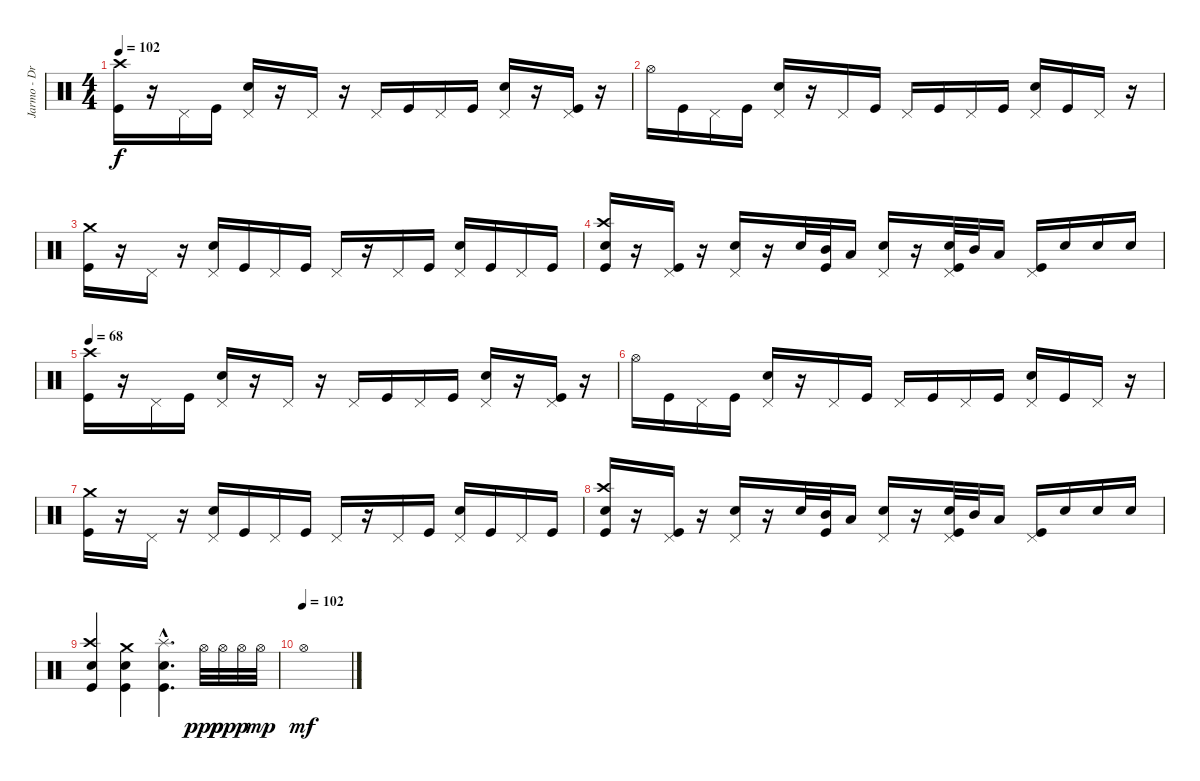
\track ("Jarmo - Drums" "Jarmo - Dr") {instrument percussion}
\staff {score}
\articulation defaults
\ts (4 4)
\tempo 102
\clef neutral
\ks c
("Kick (hit)" "Crash high (hit)").16{dy f} r.16 "Pedal Hi-Hat (hit)".16 "Kick (hit)".16 ("Electric Snare (hit)" "Pedal Hi-Hat (hit)").16 r.16 "Pedal Hi-Hat (hit)".16 r.16 "Pedal Hi-Hat (hit)".16 "Kick (hit)".16 "Pedal Hi-Hat (hit)".16 "Kick (hit)".16 ("Electric Snare (hit)" "Pedal Hi-Hat (hit)").16 r.16 ("Kick (hit)" "Pedal Hi-Hat (hit)").16 r.16 |
"Hi-Hat (open)".16 "Kick (hit)".16 "Pedal Hi-Hat (hit)".16 "Kick (hit)".16 ("Electric Snare (hit)" "Pedal Hi-Hat (hit)").16 r.16 "Pedal Hi-Hat (hit)".16 "Kick (hit)".16 "Pedal Hi-Hat (hit)".16 "Kick (hit)".16 "Pedal Hi-Hat (hit)".16 "Kick (hit)".16 ("Electric Snare (hit)" "Pedal Hi-Hat (hit)").16 "Kick (hit)".16 "Pedal Hi-Hat (hit)".16 r.16 |
("Kick (hit)" "Crash medium (hit)").16 r.16 "Pedal Hi-Hat (hit)".16 r.16 ("Electric Snare (hit)" "Pedal Hi-Hat (hit)").16 "Kick (hit)".16 "Pedal Hi-Hat (hit)".16 "Kick (hit)".16 "Pedal Hi-Hat (hit)".16 r.16 "Pedal Hi-Hat (hit)".16 "Kick (hit)".16 ("Electric Snare (hit)" "Pedal Hi-Hat (hit)").16 "Kick (hit)".16 "Pedal Hi-Hat (hit)".16 "Kick (hit)".16 |
("Kick (hit)" "Electric Snare (hit)" "Crash high (hit)").16 r.16 ("Kick (hit)" "Pedal Hi-Hat (hit)").16 r.16 ("Electric Snare (hit)" "Pedal Hi-Hat (hit)").16 r.16 "Electric Snare (hit)".32 ("Kick (hit)" "Mid Tom (hit)").32 "Low Tom (hit)".16 ("Electric Snare (hit)" "Pedal Hi-Hat (hit)").16 r.16 ("Kick (hit)" "Electric Snare (hit)" "Pedal Hi-Hat (hit)").32 "Mid Tom (hit)".32 "Low Tom (hit)".16 ("Kick (hit)" "Pedal Hi-Hat (hit)").16 "Electric Snare (hit)".16 "Electric Snare (hit)".16 "Electric Snare (hit)".16 |
\tempo 68
("Kick (hit)" "Crash high (hit)").16 r.16 "Pedal Hi-Hat (hit)".16 "Kick (hit)".16 ("Electric Snare (hit)" "Pedal Hi-Hat (hit)").16 r.16 "Pedal Hi-Hat (hit)".16 r.16 "Pedal Hi-Hat (hit)".16 "Kick (hit)".16 "Pedal Hi-Hat (hit)".16 "Kick (hit)".16 ("Electric Snare (hit)" "Pedal Hi-Hat (hit)").16 r.16 ("Kick (hit)" "Pedal Hi-Hat (hit)").16 r.16 |
"Hi-Hat (open)".16 "Kick (hit)".16 "Pedal Hi-Hat (hit)".16 "Kick (hit)".16 ("Electric Snare (hit)" "Pedal Hi-Hat (hit)").16 r.16 "Pedal Hi-Hat (hit)".16 "Kick (hit)".16 "Pedal Hi-Hat (hit)".16 "Kick (hit)".16 "Pedal Hi-Hat (hit)".16 "Kick (hit)".16 ("Electric Snare (hit)" "Pedal Hi-Hat (hit)").16 "Kick (hit)".16 "Pedal Hi-Hat (hit)".16 r.16 |
("Kick (hit)" "Crash medium (hit)").16 r.16 "Pedal Hi-Hat (hit)".16 r.16 ("Electric Snare (hit)" "Pedal Hi-Hat (hit)").16 "Kick (hit)".16 "Pedal Hi-Hat (hit)".16 "Kick (hit)".16 "Pedal Hi-Hat (hit)".16 r.16 "Pedal Hi-Hat (hit)".16 "Kick (hit)".16 ("Electric Snare (hit)" "Pedal Hi-Hat (hit)").16 "Kick (hit)".16 "Pedal Hi-Hat (hit)".16 "Kick (hit)".16 |
("Kick (hit)" "Electric Snare (hit)" "Crash high (hit)").16 r.16 ("Kick (hit)" "Pedal Hi-Hat (hit)").16 r.16 ("Electric Snare (hit)" "Pedal Hi-Hat (hit)").16 r.16 "Electric Snare (hit)".32 ("Kick (hit)" "Mid Tom (hit)").32 "Low Tom (hit)".16 ("Electric Snare (hit)" "Pedal Hi-Hat (hit)").16 r.16 ("Kick (hit)" "Electric Snare (hit)" "Pedal Hi-Hat (hit)").32 "Mid Tom (hit)".32 "Low Tom (hit)".16 ("Kick (hit)" "Pedal Hi-Hat (hit)").16 "Electric Snare (hit)".16 "Electric Snare (hit)".16 "Electric Snare (hit)".16 |
("Crash high (hit)" "Electric Snare (hit)" "Kick (hit)").4 ("Crash medium (hit)" "Electric Snare (hit)" "Kick (hit)").4 ("Splash (hit)"{hac} "Electric Snare (hit)"{hac} "Kick (hit)"{hac}).4{d} "Hi-Hat (open)".32{dy ppp} "Hi-Hat (open)".32{dy pp} "Hi-Hat (open)".32{dy p} "Hi-Hat (open)".32{dy mp} |
\tempo (102)
"Hi-Hat (open)".1{dy mf}
